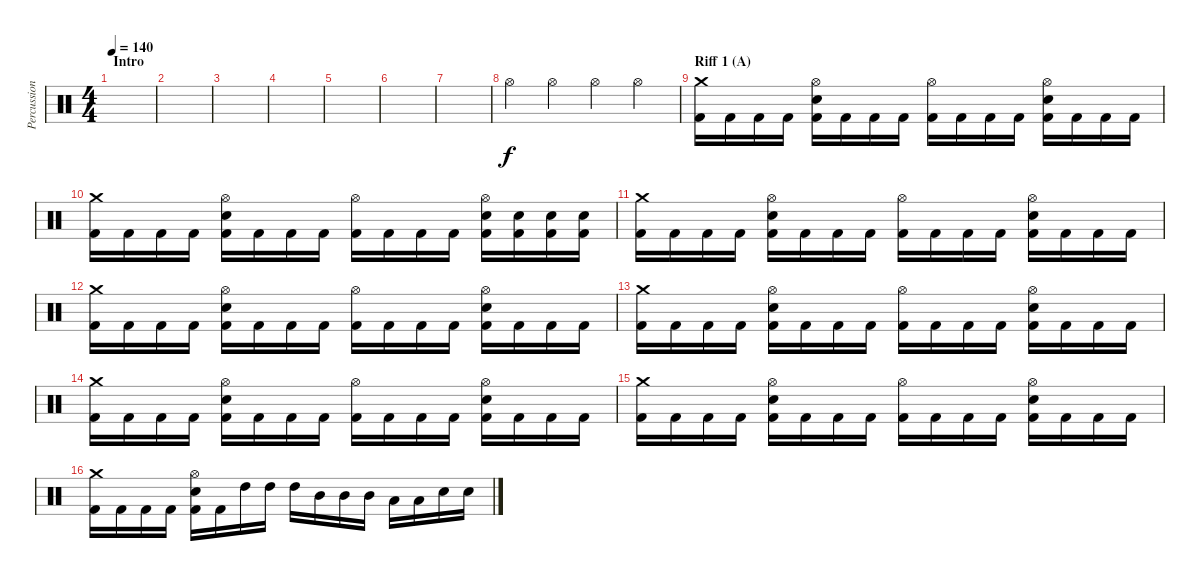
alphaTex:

\track ("Percussions" "Percussion") {instrument percussion}
\staff {score}
\articulation defaults
\ts (4 4)
\section ("" "Intro")
\tempo 140
\clef neutral
\ks c
|
|
|
|
|
|
|
"Hi-Hat (open)".4 "Hi-Hat (open)".4 "Hi-Hat (open)".4 "Hi-Hat (open)".4 |
\section ("" "Riff 1 (A)")
("Crash medium (hit)" "Kick (hit) 2").16 "Kick (hit) 2".16 "Kick (hit) 2".16 "Kick (hit) 2".16 ("Hi-Hat (open)" "Snare (hit) 2" "Kick (hit) 2").16 "Kick (hit) 2".16 "Kick (hit) 2".16 "Kick (hit) 2".16 ("Hi-Hat (open)" "Kick (hit) 2").16 "Kick (hit) 2".16 "Kick (hit) 2".16 "Kick (hit) 2".16 ("Hi-Hat (open)" "Snare (hit) 2" "Kick (hit) 2").16 "Kick (hit) 2".16 "Kick (hit) 2".16 "Kick (hit) 2".16 |
("Crash medium (hit)" "Kick (hit) 2").16 "Kick (hit) 2".16 "Kick (hit) 2".16 "Kick (hit) 2".16 ("Hi-Hat (open)" "Snare (hit) 2" "Kick (hit) 2").16 "Kick (hit) 2".16 "Kick (hit) 2".16 "Kick (hit) 2".16 ("Hi-Hat (open)" "Kick (hit) 2").16 "Kick (hit) 2".16 "Kick (hit) 2".16 "Kick (hit) 2".16 ("Hi-Hat (open)" "Snare (hit) 2" "Kick (hit) 2").16 ("Snare (hit) 2" "Kick (hit) 2").16 ("Snare (hit) 2" "Kick (hit) 2").16 ("Snare (hit) 2" "Kick (hit) 2").16 |
("Crash medium (hit)" "Kick (hit) 2").16 "Kick (hit) 2".16 "Kick (hit) 2".16 "Kick (hit) 2".16 ("Hi-Hat (open)" "Snare (hit) 2" "Kick (hit) 2").16 "Kick (hit) 2".16 "Kick (hit) 2".16 "Kick (hit) 2".16 ("Hi-Hat (open)" "Kick (hit) 2").16 "Kick (hit) 2".16 "Kick (hit) 2".16 "Kick (hit) 2".16 ("Hi-Hat (open)" "Snare (hit) 2" "Kick (hit) 2").16 "Kick (hit) 2".16 "Kick (hit) 2".16 "Kick (hit) 2".16 |
("Crash medium (hit)" "Kick (hit) 2").16 "Kick (hit) 2".16 "Kick (hit) 2".16 "Kick (hit) 2".16 ("Hi-Hat (open)" "Snare (hit) 2" "Kick (hit) 2").16 "Kick (hit) 2".16 "Kick (hit) 2".16 "Kick (hit) 2".16 ("Hi-Hat (open)" "Kick (hit) 2").16 "Kick (hit) 2".16 "Kick (hit) 2".16 "Kick (hit) 2".16 ("Hi-Hat (open)" "Snare (hit) 2" "Kick (hit) 2").16 "Kick (hit) 2".16 "Kick (hit) 2".16 "Kick (hit) 2".16 |
("Crash medium (hit)" "Kick (hit) 2").16 "Kick (hit) 2".16 "Kick (hit) 2".16 "Kick (hit) 2".16 ("Hi-Hat (open)" "Snare (hit) 2" "Kick (hit) 2").16 "Kick (hit) 2".16 "Kick (hit) 2".16 "Kick (hit) 2".16 ("Hi-Hat (open)" "Kick (hit) 2").16 "Kick (hit) 2".16 "Kick (hit) 2".16 "Kick (hit) 2".16 ("Hi-Hat (open)" "Snare (hit) 2" "Kick (hit) 2").16 "Kick (hit) 2".16 "Kick (hit) 2".16 "Kick (hit) 2".16 |
("Crash medium (hit)" "Kick (hit) 2").16 "Kick (hit) 2".16 "Kick (hit) 2".16 "Kick (hit) 2".16 ("Hi-Hat (open)" "Snare (hit) 2" "Kick (hit) 2").16 "Kick (hit) 2".16 "Kick (hit) 2".16 "Kick (hit) 2".16 ("Hi-Hat (open)" "Kick (hit) 2").16 "Kick (hit) 2".16 "Kick (hit) 2".16 "Kick (hit) 2".16 ("Hi-Hat (open)" "Snare (hit) 2" "Kick (hit) 2").16 "Kick (hit) 2".16 "Kick (hit) 2".16 "Kick (hit) 2".16 |
("Crash medium (hit)" "Kick (hit) 2").16 "Kick (hit) 2".16 "Kick (hit) 2".16 "Kick (hit) 2".16 ("Hi-Hat (open)" "Snare (hit) 2" "Kick (hit) 2").16 "Kick (hit) 2".16 "Kick (hit) 2".16 "Kick (hit) 2".16 ("Hi-Hat (open)" "Kick (hit) 2").16 "Kick (hit) 2".16 "Kick (hit) 2".16 "Kick (hit) 2".16 ("Hi-Hat (open)" "Snare (hit) 2" "Kick (hit) 2").16 "Kick (hit) 2".16 "Kick (hit) 2".16 "Kick (hit) 2".16 |
("Crash medium (hit)" "Kick (hit) 2").16 "Kick (hit) 2".16 "Kick (hit) 2".16 "Kick (hit) 2".16 ("Hi-Hat (open)" "Snare (hit) 2" "Kick (hit) 2").16 "Kick (hit) 2".16 "High Tom (hit)".16 "High Tom (hit)".16 "High Tom (hit)".16 "Mid Tom (hit)".16 "Mid Tom (hit)".16 "Mid Tom (hit)".16 "Low Tom (hit)".16 "Low Tom (hit)".16 "Snare (hit) 2".16 "Snare (hit) 2".16
